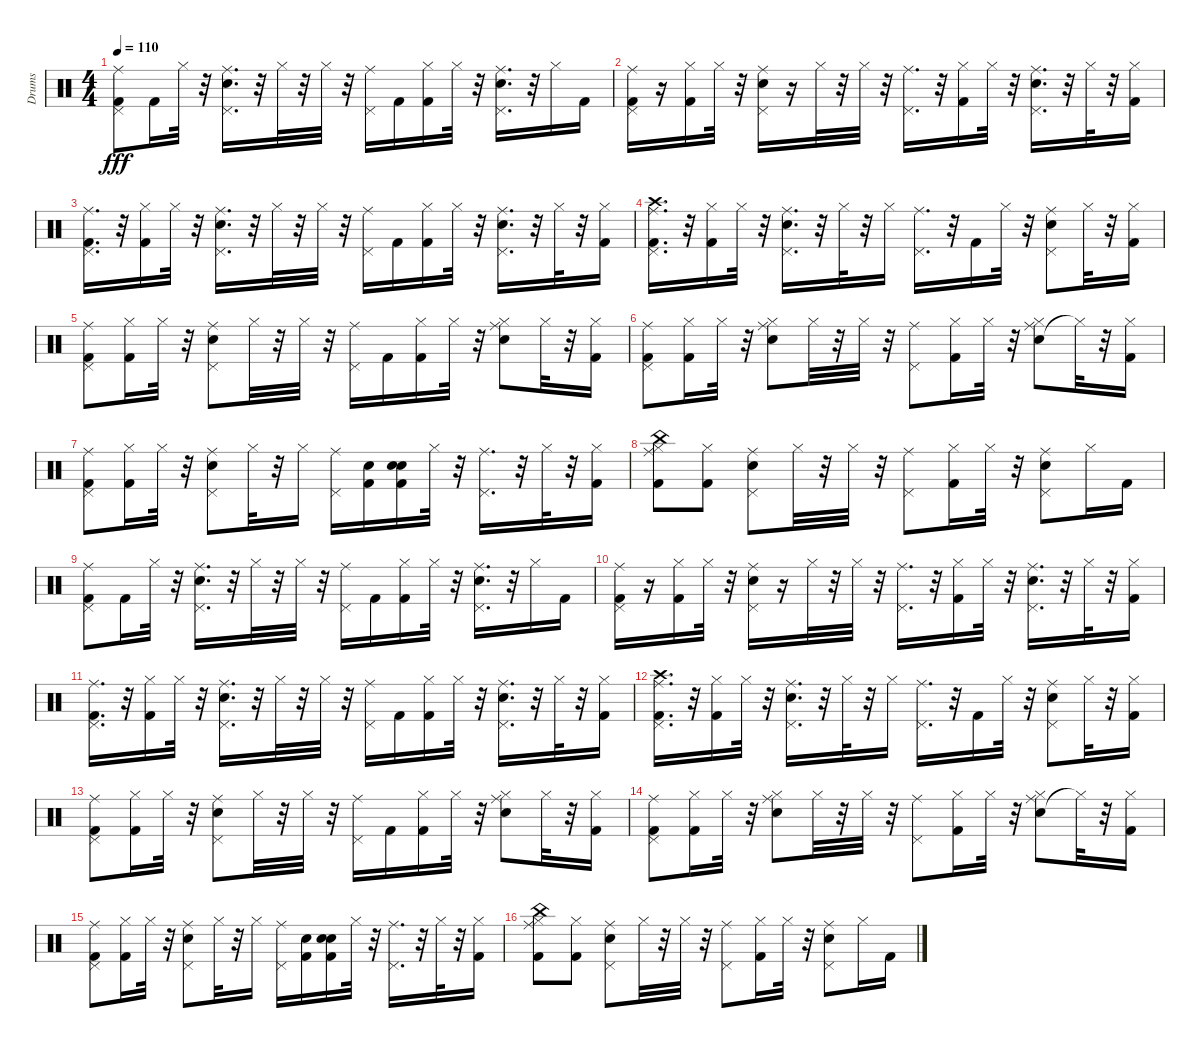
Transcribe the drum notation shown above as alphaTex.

\track ("Drums" "Drums") {instrument percussion}
\staff {score}
\articulation defaults
\ts (4 4)
\tempo 110
\clef neutral
\ks c
("Kick (hit) 2" "Pedal Hi-Hat (hit)" "Ride (middle)").8{dy fff} "Kick (hit) 2".16 "Hi-Hat (closed)".32 r.32 ("Snare (hit) 2" "Pedal Hi-Hat (hit)" "Ride (middle)").16{d} r.32 "Hi-Hat (closed)".32 r.32 "Hi-Hat (closed)".32 r.32 ("Pedal Hi-Hat (hit)" "Ride (middle)").16 "Kick (hit) 2".16 ("Kick (hit) 2" "Hi-Hat (closed)").16 "Hi-Hat (closed)".32 r.32 ("Snare (hit) 2" "Pedal Hi-Hat (hit)" "Ride (middle)").16{d} r.32 "Hi-Hat (closed)".16 "Kick (hit) 2".16 |
("Kick (hit) 2" "Pedal Hi-Hat (hit)" "Ride (middle)").16 r.16 ("Kick (hit) 2" "Hi-Hat (closed)").16 "Hi-Hat (closed)".32 r.32 ("Snare (hit) 2" "Pedal Hi-Hat (hit)" "Ride (middle)").16 r.16 "Hi-Hat (closed)".32 r.32 "Hi-Hat (closed)".32 r.32 ("Pedal Hi-Hat (hit)" "Ride (middle)").16{d} r.32 ("Kick (hit) 2" "Hi-Hat (closed)").16 "Hi-Hat (closed)".32 r.32 ("Snare (hit) 2" "Pedal Hi-Hat (hit)" "Ride (middle)").16{d} r.32 "Hi-Hat (closed)".32 r.32 ("Kick (hit) 2" "Hi-Hat (closed)").16 |
("Kick (hit) 2" "Pedal Hi-Hat (hit)" "Ride (middle)").16{d} r.32 ("Kick (hit) 2" "Hi-Hat (closed)").16 "Hi-Hat (closed)".32 r.32 ("Snare (hit) 2" "Pedal Hi-Hat (hit)" "Ride (middle)").16{d} r.32 "Hi-Hat (closed)".32 r.32 "Hi-Hat (closed)".32 r.32 ("Pedal Hi-Hat (hit)" "Ride (middle)").16 "Kick (hit) 2".16 ("Kick (hit) 2" "Hi-Hat (closed)").16 "Hi-Hat (closed)".32 r.32 ("Snare (hit) 2" "Pedal Hi-Hat (hit)" "Ride (middle)").16{d} r.32 "Hi-Hat (closed)".32 r.32 ("Kick (hit) 2" "Hi-Hat (closed)").16 |
("Kick (hit) 2" "Pedal Hi-Hat (hit)" "Ride (middle)" "Crash high (hit)").16{d} r.32 ("Kick (hit) 2" "Hi-Hat (closed)").16 "Hi-Hat (closed)".32 r.32 ("Snare (hit) 2" "Pedal Hi-Hat (hit)" "Ride (middle)").16{d} r.32 "Hi-Hat (closed)".32 r.32 "Hi-Hat (closed)".16 ("Pedal Hi-Hat (hit)" "Ride (middle)").16{d} r.32 "Kick (hit) 2".16 "Hi-Hat (closed)".32 r.32 ("Snare (hit) 2" "Pedal Hi-Hat (hit)" "Ride (middle)").8 "Hi-Hat (closed)".32 r.32 ("Kick (hit) 2" "Hi-Hat (closed)").16 |
("Kick (hit) 2" "Pedal Hi-Hat (hit)" "Ride (middle)").8 ("Kick (hit) 2" "Hi-Hat (closed)").16 "Hi-Hat (closed)".32 r.32 ("Snare (hit) 2" "Pedal Hi-Hat (hit)" "Ride (middle)").8 "Hi-Hat (closed)".32 r.32 "Hi-Hat (closed)".32 r.32 ("Pedal Hi-Hat (hit)" "Ride (middle)").16 "Kick (hit) 2".16 ("Kick (hit) 2" "Hi-Hat (closed)").16 "Hi-Hat (closed)".32 r.32 ("Snare (hit) 2" "Hi-Hat (closed)" "Ride (middle)").8 "Hi-Hat (closed)".32 r.32 ("Kick (hit) 2" "Hi-Hat (closed)").16 |
("Kick (hit) 2" "Pedal Hi-Hat (hit)" "Ride (middle)").8 ("Kick (hit) 2" "Hi-Hat (closed)").16 "Hi-Hat (closed)".32 r.32 ("Snare (hit) 2" "Hi-Hat (closed)" "Ride (middle)").8 "Hi-Hat (closed)".32 r.32 "Hi-Hat (closed)".32 r.32 ("Pedal Hi-Hat (hit)" "Ride (middle)").8 ("Kick (hit) 2" "Hi-Hat (closed)").16 "Hi-Hat (closed)".32 r.32 ("Snare (hit) 2" "Hi-Hat (closed)" "Ride (middle)").8 "Hi-Hat (closed)"{t}.32 r.32 ("Kick (hit) 2" "Hi-Hat (closed)").16 |
("Kick (hit) 2" "Pedal Hi-Hat (hit)" "Ride (middle)").8 ("Kick (hit) 2" "Hi-Hat (closed)").16 "Hi-Hat (closed)".32 r.32 ("Snare (hit) 2" "Pedal Hi-Hat (hit)" "Ride (middle)").8 "Hi-Hat (closed)".32 r.32 "Hi-Hat (closed)".16 ("Pedal Hi-Hat (hit)" "Ride (middle)").16 ("Kick (hit) 2" "Snare (hit) 2").16 ("Snare (hit) 2" "Kick (hit) 2" "Snare (hit) 2").16 "Hi-Hat (closed)".32 r.32 ("Pedal Hi-Hat (hit)" "Ride (middle)").16{d} r.32 "Hi-Hat (closed)".32 r.32 ("Kick (hit) 2" "Hi-Hat (closed)").16 |
("Kick (hit) 2" "Hi-Hat (closed)" "Ride (middle)" "China (hit)").8 ("Kick (hit) 2" "Hi-Hat (closed)").8 ("Snare (hit) 2" "Pedal Hi-Hat (hit)" "Ride (middle)").8 "Hi-Hat (closed)".32 r.32 "Hi-Hat (closed)".32 r.32 ("Pedal Hi-Hat (hit)" "Ride (middle)").8 ("Kick (hit) 2" "Hi-Hat (closed)").16 "Hi-Hat (closed)".32 r.32 ("Snare (hit) 2" "Pedal Hi-Hat (hit)" "Ride (middle)").8 "Hi-Hat (closed)".16 "Kick (hit) 2".16 |
("Kick (hit) 2" "Pedal Hi-Hat (hit)" "Ride (middle)").8 "Kick (hit) 2".16 "Hi-Hat (closed)".32 r.32 ("Snare (hit) 2" "Pedal Hi-Hat (hit)" "Ride (middle)").16{d} r.32 "Hi-Hat (closed)".32 r.32 "Hi-Hat (closed)".32 r.32 ("Pedal Hi-Hat (hit)" "Ride (middle)").16 "Kick (hit) 2".16 ("Kick (hit) 2" "Hi-Hat (closed)").16 "Hi-Hat (closed)".32 r.32 ("Snare (hit) 2" "Pedal Hi-Hat (hit)" "Ride (middle)").16{d} r.32 "Hi-Hat (closed)".16 "Kick (hit) 2".16 |
("Kick (hit) 2" "Pedal Hi-Hat (hit)" "Ride (middle)").16 r.16 ("Kick (hit) 2" "Hi-Hat (closed)").16 "Hi-Hat (closed)".32 r.32 ("Snare (hit) 2" "Pedal Hi-Hat (hit)" "Ride (middle)").16 r.16 "Hi-Hat (closed)".32 r.32 "Hi-Hat (closed)".32 r.32 ("Pedal Hi-Hat (hit)" "Ride (middle)").16{d} r.32 ("Kick (hit) 2" "Hi-Hat (closed)").16 "Hi-Hat (closed)".32 r.32 ("Snare (hit) 2" "Pedal Hi-Hat (hit)" "Ride (middle)").16{d} r.32 "Hi-Hat (closed)".32 r.32 ("Kick (hit) 2" "Hi-Hat (closed)").16 |
("Kick (hit) 2" "Pedal Hi-Hat (hit)" "Ride (middle)").16{d} r.32 ("Kick (hit) 2" "Hi-Hat (closed)").16 "Hi-Hat (closed)".32 r.32 ("Snare (hit) 2" "Pedal Hi-Hat (hit)" "Ride (middle)").16{d} r.32 "Hi-Hat (closed)".32 r.32 "Hi-Hat (closed)".32 r.32 ("Pedal Hi-Hat (hit)" "Ride (middle)").16 "Kick (hit) 2".16 ("Kick (hit) 2" "Hi-Hat (closed)").16 "Hi-Hat (closed)".32 r.32 ("Snare (hit) 2" "Pedal Hi-Hat (hit)" "Ride (middle)").16{d} r.32 "Hi-Hat (closed)".32 r.32 ("Kick (hit) 2" "Hi-Hat (closed)").16 |
("Kick (hit) 2" "Pedal Hi-Hat (hit)" "Ride (middle)" "Crash high (hit)").16{d} r.32 ("Kick (hit) 2" "Hi-Hat (closed)").16 "Hi-Hat (closed)".32 r.32 ("Snare (hit) 2" "Pedal Hi-Hat (hit)" "Ride (middle)").16{d} r.32 "Hi-Hat (closed)".32 r.32 "Hi-Hat (closed)".16 ("Pedal Hi-Hat (hit)" "Ride (middle)").16{d} r.32 "Kick (hit) 2".16 "Hi-Hat (closed)".32 r.32 ("Snare (hit) 2" "Pedal Hi-Hat (hit)" "Ride (middle)").8 "Hi-Hat (closed)".32 r.32 ("Kick (hit) 2" "Hi-Hat (closed)").16 |
("Kick (hit) 2" "Pedal Hi-Hat (hit)" "Ride (middle)").8 ("Kick (hit) 2" "Hi-Hat (closed)").16 "Hi-Hat (closed)".32 r.32 ("Snare (hit) 2" "Pedal Hi-Hat (hit)" "Ride (middle)").8 "Hi-Hat (closed)".32 r.32 "Hi-Hat (closed)".32 r.32 ("Pedal Hi-Hat (hit)" "Ride (middle)").16 "Kick (hit) 2".16 ("Kick (hit) 2" "Hi-Hat (closed)").16 "Hi-Hat (closed)".32 r.32 ("Snare (hit) 2" "Hi-Hat (closed)" "Ride (middle)").8 "Hi-Hat (closed)".32 r.32 ("Kick (hit) 2" "Hi-Hat (closed)").16 |
("Kick (hit) 2" "Pedal Hi-Hat (hit)" "Ride (middle)").8 ("Kick (hit) 2" "Hi-Hat (closed)").16 "Hi-Hat (closed)".32 r.32 ("Snare (hit) 2" "Hi-Hat (closed)" "Ride (middle)").8 "Hi-Hat (closed)".32 r.32 "Hi-Hat (closed)".32 r.32 ("Pedal Hi-Hat (hit)" "Ride (middle)").8 ("Kick (hit) 2" "Hi-Hat (closed)").16 "Hi-Hat (closed)".32 r.32 ("Snare (hit) 2" "Hi-Hat (closed)" "Ride (middle)").8 "Hi-Hat (closed)"{t}.32 r.32 ("Kick (hit) 2" "Hi-Hat (closed)").16 |
("Kick (hit) 2" "Pedal Hi-Hat (hit)" "Ride (middle)").8 ("Kick (hit) 2" "Hi-Hat (closed)").16 "Hi-Hat (closed)".32 r.32 ("Snare (hit) 2" "Pedal Hi-Hat (hit)" "Ride (middle)").8 "Hi-Hat (closed)".32 r.32 "Hi-Hat (closed)".16 ("Pedal Hi-Hat (hit)" "Ride (middle)").16 ("Kick (hit) 2" "Snare (hit) 2").16 ("Snare (hit) 2" "Kick (hit) 2" "Snare (hit) 2").16 "Hi-Hat (closed)".32 r.32 ("Pedal Hi-Hat (hit)" "Ride (middle)").16{d} r.32 "Hi-Hat (closed)".32 r.32 ("Kick (hit) 2" "Hi-Hat (closed)").16 |
("Kick (hit) 2" "Hi-Hat (closed)" "Ride (middle)" "China (hit)").8 ("Kick (hit) 2" "Hi-Hat (closed)").8 ("Snare (hit) 2" "Pedal Hi-Hat (hit)" "Ride (middle)").8 "Hi-Hat (closed)".32 r.32 "Hi-Hat (closed)".32 r.32 ("Pedal Hi-Hat (hit)" "Ride (middle)").8 ("Kick (hit) 2" "Hi-Hat (closed)").16 "Hi-Hat (closed)".32 r.32 ("Snare (hit) 2" "Pedal Hi-Hat (hit)" "Ride (middle)").8 "Hi-Hat (closed)".16 "Kick (hit) 2".16
